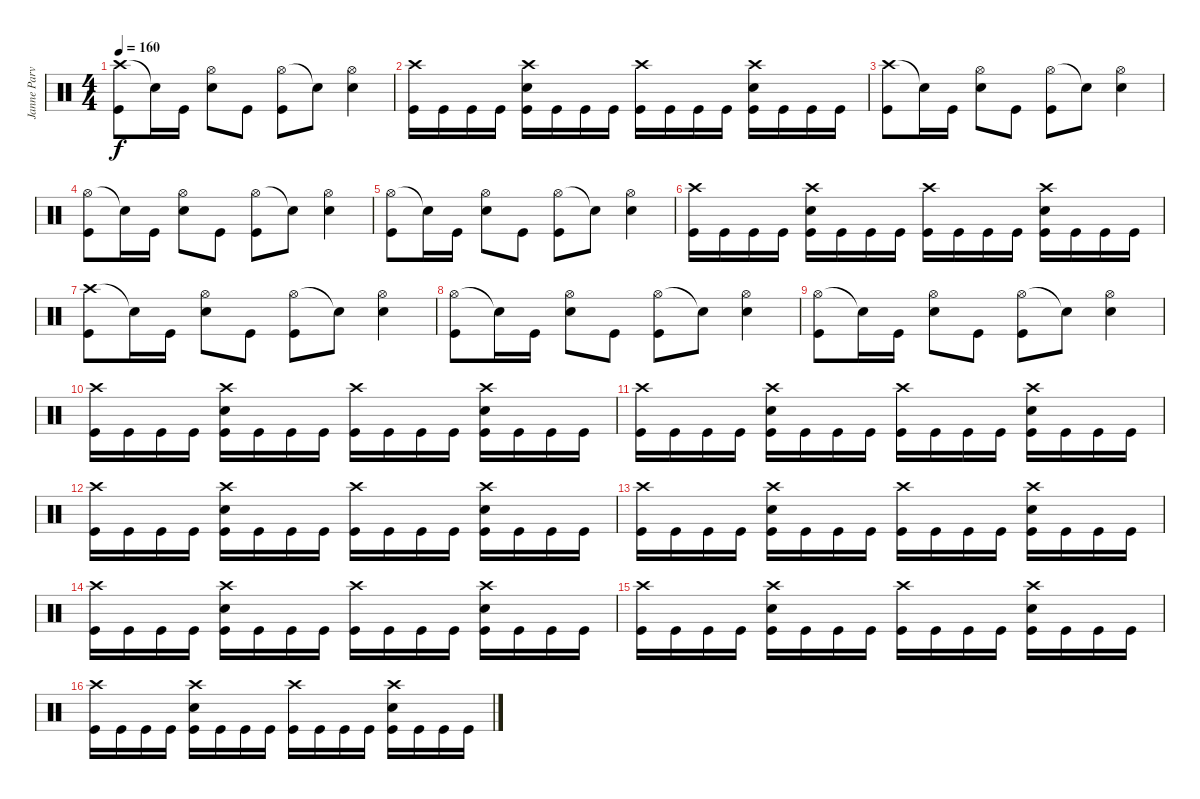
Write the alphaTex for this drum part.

\track ("Janne Parviainen" "Janne Parv") {instrument percussion}
\staff {score}
\articulation defaults
\ts (4 4)
\tempo 160
\clef neutral
\ks c
("Crash high (hit)" "Kick (hit)").8{dy f} "Snare (hit)"{t}.16 "Kick (hit)".16 ("Hi-Hat (open)" "Electric Snare (hit)").8 "Kick (hit)".8 ("Hi-Hat (open)" "Kick (hit)").8 "Snare (hit)"{t}.8 ("Hi-Hat (open)" "Electric Snare (hit)").4 |
("Crash high (hit)" "Kick (hit)").16 "Kick (hit)".16 "Kick (hit)".16 "Kick (hit)".16 ("Crash high (hit)" "Electric Snare (hit)" "Kick (hit)").16 "Kick (hit)".16 "Kick (hit)".16 "Kick (hit)".16 ("Crash high (hit)" "Kick (hit)").16 "Kick (hit)".16 "Kick (hit)".16 "Kick (hit)".16 ("Crash high (hit)" "Electric Snare (hit)" "Kick (hit)").16 "Kick (hit)".16 "Kick (hit)".16 "Kick (hit)".16 |
("Crash high (hit)" "Kick (hit)").8 "Snare (hit)"{t}.16 "Kick (hit)".16 ("Hi-Hat (open)" "Electric Snare (hit)").8 "Kick (hit)".8 ("Hi-Hat (open)" "Kick (hit)").8 "Snare (hit)"{t}.8 ("Hi-Hat (open)" "Electric Snare (hit)").4 |
("Hi-Hat (open)" "Kick (hit)").8 "Snare (hit)"{t}.16 "Kick (hit)".16 ("Hi-Hat (open)" "Electric Snare (hit)").8 "Kick (hit)".8 ("Hi-Hat (open)" "Kick (hit)").8 "Snare (hit)"{t}.8 ("Hi-Hat (open)" "Electric Snare (hit)").4 |
("Hi-Hat (open)" "Kick (hit)").8 "Snare (hit)"{t}.16 "Kick (hit)".16 ("Hi-Hat (open)" "Electric Snare (hit)").8 "Kick (hit)".8 ("Hi-Hat (open)" "Kick (hit)").8 "Snare (hit)"{t}.8 ("Hi-Hat (open)" "Electric Snare (hit)").4 |
("Crash high (hit)" "Kick (hit)").16 "Kick (hit)".16 "Kick (hit)".16 "Kick (hit)".16 ("Crash high (hit)" "Electric Snare (hit)" "Kick (hit)").16 "Kick (hit)".16 "Kick (hit)".16 "Kick (hit)".16 ("Crash high (hit)" "Kick (hit)").16 "Kick (hit)".16 "Kick (hit)".16 "Kick (hit)".16 ("Crash high (hit)" "Electric Snare (hit)" "Kick (hit)").16 "Kick (hit)".16 "Kick (hit)".16 "Kick (hit)".16 |
("Crash high (hit)" "Kick (hit)").8 "Snare (hit)"{t}.16 "Kick (hit)".16 ("Hi-Hat (open)" "Electric Snare (hit)").8 "Kick (hit)".8 ("Hi-Hat (open)" "Kick (hit)").8 "Snare (hit)"{t}.8 ("Hi-Hat (open)" "Electric Snare (hit)").4 |
("Hi-Hat (open)" "Kick (hit)").8 "Snare (hit)"{t}.16 "Kick (hit)".16 ("Hi-Hat (open)" "Electric Snare (hit)").8 "Kick (hit)".8 ("Hi-Hat (open)" "Kick (hit)").8 "Snare (hit)"{t}.8 ("Hi-Hat (open)" "Electric Snare (hit)").4 |
("Hi-Hat (open)" "Kick (hit)").8 "Snare (hit)"{t}.16 "Kick (hit)".16 ("Hi-Hat (open)" "Electric Snare (hit)").8 "Kick (hit)".8 ("Hi-Hat (open)" "Kick (hit)").8 "Snare (hit)"{t}.8 ("Hi-Hat (open)" "Electric Snare (hit)").4 |
("Crash high (hit)" "Kick (hit)").16 "Kick (hit)".16 "Kick (hit)".16 "Kick (hit)".16 ("Crash high (hit)" "Electric Snare (hit)" "Kick (hit)").16 "Kick (hit)".16 "Kick (hit)".16 "Kick (hit)".16 ("Crash high (hit)" "Kick (hit)").16 "Kick (hit)".16 "Kick (hit)".16 "Kick (hit)".16 ("Crash high (hit)" "Electric Snare (hit)" "Kick (hit)").16 "Kick (hit)".16 "Kick (hit)".16 "Kick (hit)".16 |
("Crash high (hit)" "Kick (hit)").16 "Kick (hit)".16 "Kick (hit)".16 "Kick (hit)".16 ("Crash high (hit)" "Electric Snare (hit)" "Kick (hit)").16 "Kick (hit)".16 "Kick (hit)".16 "Kick (hit)".16 ("Crash high (hit)" "Kick (hit)").16 "Kick (hit)".16 "Kick (hit)".16 "Kick (hit)".16 ("Crash high (hit)" "Electric Snare (hit)" "Kick (hit)").16 "Kick (hit)".16 "Kick (hit)".16 "Kick (hit)".16 |
("Crash high (hit)" "Kick (hit)").16 "Kick (hit)".16 "Kick (hit)".16 "Kick (hit)".16 ("Crash high (hit)" "Electric Snare (hit)" "Kick (hit)").16 "Kick (hit)".16 "Kick (hit)".16 "Kick (hit)".16 ("Crash high (hit)" "Kick (hit)").16 "Kick (hit)".16 "Kick (hit)".16 "Kick (hit)".16 ("Crash high (hit)" "Electric Snare (hit)" "Kick (hit)").16 "Kick (hit)".16 "Kick (hit)".16 "Kick (hit)".16 |
("Crash high (hit)" "Kick (hit)").16 "Kick (hit)".16 "Kick (hit)".16 "Kick (hit)".16 ("Crash high (hit)" "Electric Snare (hit)" "Kick (hit)").16 "Kick (hit)".16 "Kick (hit)".16 "Kick (hit)".16 ("Crash high (hit)" "Kick (hit)").16 "Kick (hit)".16 "Kick (hit)".16 "Kick (hit)".16 ("Crash high (hit)" "Electric Snare (hit)" "Kick (hit)").16 "Kick (hit)".16 "Kick (hit)".16 "Kick (hit)".16 |
("Crash high (hit)" "Kick (hit)").16 "Kick (hit)".16 "Kick (hit)".16 "Kick (hit)".16 ("Crash high (hit)" "Electric Snare (hit)" "Kick (hit)").16 "Kick (hit)".16 "Kick (hit)".16 "Kick (hit)".16 ("Crash high (hit)" "Kick (hit)").16 "Kick (hit)".16 "Kick (hit)".16 "Kick (hit)".16 ("Crash high (hit)" "Electric Snare (hit)" "Kick (hit)").16 "Kick (hit)".16 "Kick (hit)".16 "Kick (hit)".16 |
("Crash high (hit)" "Kick (hit)").16 "Kick (hit)".16 "Kick (hit)".16 "Kick (hit)".16 ("Crash high (hit)" "Electric Snare (hit)" "Kick (hit)").16 "Kick (hit)".16 "Kick (hit)".16 "Kick (hit)".16 ("Crash high (hit)" "Kick (hit)").16 "Kick (hit)".16 "Kick (hit)".16 "Kick (hit)".16 ("Crash high (hit)" "Electric Snare (hit)" "Kick (hit)").16 "Kick (hit)".16 "Kick (hit)".16 "Kick (hit)".16 |
("Crash high (hit)" "Kick (hit)").16 "Kick (hit)".16 "Kick (hit)".16 "Kick (hit)".16 ("Crash high (hit)" "Electric Snare (hit)" "Kick (hit)").16 "Kick (hit)".16 "Kick (hit)".16 "Kick (hit)".16 ("Crash high (hit)" "Kick (hit)").16 "Kick (hit)".16 "Kick (hit)".16 "Kick (hit)".16 ("Crash high (hit)" "Electric Snare (hit)" "Kick (hit)").16 "Kick (hit)".16 "Kick (hit)".16 "Kick (hit)".16
